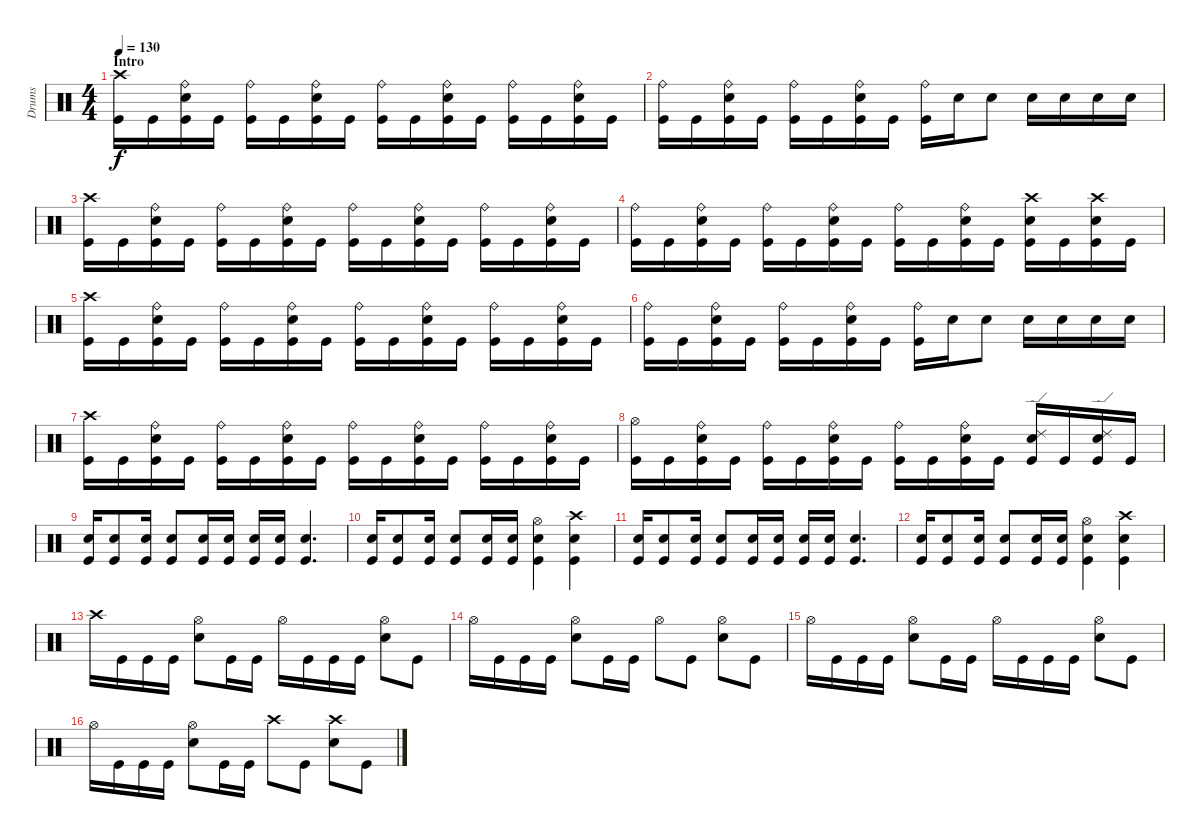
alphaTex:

\track ("Drums" "Drums") {instrument percussion}
\staff {score}
\articulation defaults
\ts (4 4)
\section ("" "Intro ")
\tempo 130
\clef neutral
\ks c
("Crash high (hit)" "Kick (hit)").16{dy f} "Kick (hit)".16 ("Ride (bell)" "Electric Snare (hit)" "Kick (hit)").16 "Kick (hit)".16 ("Ride (bell)" "Kick (hit)").16 "Kick (hit)".16 ("Ride (bell)" "Electric Snare (hit)" "Kick (hit)").16 "Kick (hit)".16 ("Ride (bell)" "Kick (hit)").16 "Kick (hit)".16 ("Ride (bell)" "Electric Snare (hit)" "Kick (hit)").16 "Kick (hit)".16 ("Ride (bell)" "Kick (hit)").16 "Kick (hit)".16 ("Ride (bell)" "Electric Snare (hit)" "Kick (hit)").16 "Kick (hit)".16 |
("Ride (bell)" "Kick (hit)").16 "Kick (hit)".16 ("Ride (bell)" "Electric Snare (hit)" "Kick (hit)").16 "Kick (hit)".16 ("Ride (bell)" "Kick (hit)").16 "Kick (hit)".16 ("Ride (bell)" "Electric Snare (hit)" "Kick (hit)").16 "Kick (hit)".16 ("Ride (bell)" "Kick (hit)").16 "Electric Snare (hit)".16 "Electric Snare (hit)".8 "Electric Snare (hit)".16 "Electric Snare (hit)".16 "Electric Snare (hit)".16 "Electric Snare (hit)".16 |
("Crash high (hit)" "Kick (hit)").16 "Kick (hit)".16 ("Ride (bell)" "Electric Snare (hit)" "Kick (hit)").16 "Kick (hit)".16 ("Ride (bell)" "Kick (hit)").16 "Kick (hit)".16 ("Ride (bell)" "Electric Snare (hit)" "Kick (hit)").16 "Kick (hit)".16 ("Ride (bell)" "Kick (hit)").16 "Kick (hit)".16 ("Ride (bell)" "Electric Snare (hit)" "Kick (hit)").16 "Kick (hit)".16 ("Ride (bell)" "Kick (hit)").16 "Kick (hit)".16 ("Ride (bell)" "Electric Snare (hit)" "Kick (hit)").16 "Kick (hit)".16 |
("Ride (bell)" "Kick (hit)").16 "Kick (hit)".16 ("Ride (bell)" "Electric Snare (hit)" "Kick (hit)").16 "Kick (hit)".16 ("Ride (bell)" "Kick (hit)").16 "Kick (hit)".16 ("Ride (bell)" "Electric Snare (hit)" "Kick (hit)").16 "Kick (hit)".16 ("Ride (bell)" "Kick (hit)").16 "Kick (hit)".16 ("Ride (bell)" "Electric Snare (hit)" "Kick (hit)").16 "Kick (hit)".16 ("Crash high (hit)" "Electric Snare (hit)" "Kick (hit)").16 "Kick (hit)".16 ("Crash high (hit)" "Electric Snare (hit)" "Kick (hit)").16 "Kick (hit)".16 |
("Crash high (hit)" "Kick (hit)").16 "Kick (hit)".16 ("Ride (bell)" "Electric Snare (hit)" "Kick (hit)").16 "Kick (hit)".16 ("Ride (bell)" "Kick (hit)").16 "Kick (hit)".16 ("Ride (bell)" "Electric Snare (hit)" "Kick (hit)").16 "Kick (hit)".16 ("Ride (bell)" "Kick (hit)").16 "Kick (hit)".16 ("Ride (bell)" "Electric Snare (hit)" "Kick (hit)").16 "Kick (hit)".16 ("Ride (bell)" "Kick (hit)").16 "Kick (hit)".16 ("Ride (bell)" "Electric Snare (hit)" "Kick (hit)").16 "Kick (hit)".16 |
("Ride (bell)" "Kick (hit)").16 "Kick (hit)".16 ("Ride (bell)" "Electric Snare (hit)" "Kick (hit)").16 "Kick (hit)".16 ("Ride (bell)" "Kick (hit)").16 "Kick (hit)".16 ("Ride (bell)" "Electric Snare (hit)" "Kick (hit)").16 "Kick (hit)".16 ("Ride (bell)" "Kick (hit)").16 "Electric Snare (hit)".16 "Electric Snare (hit)".8 "Electric Snare (hit)".16 "Electric Snare (hit)".16 "Electric Snare (hit)".16 "Electric Snare (hit)".16 |
("Crash high (hit)" "Kick (hit)").16 "Kick (hit)".16 ("Ride (bell)" "Electric Snare (hit)" "Kick (hit)").16 "Kick (hit)".16 ("Ride (bell)" "Kick (hit)").16 "Kick (hit)".16 ("Ride (bell)" "Electric Snare (hit)" "Kick (hit)").16 "Kick (hit)".16 ("Ride (bell)" "Kick (hit)").16 "Kick (hit)".16 ("Ride (bell)" "Electric Snare (hit)" "Kick (hit)").16 "Kick (hit)".16 ("Ride (bell)" "Kick (hit)").16 "Kick (hit)".16 ("Ride (bell)" "Electric Snare (hit)" "Kick (hit)").16 "Kick (hit)".16 |
("Hi-Hat (open)" "Kick (hit)").16 "Kick (hit)".16 ("Ride (bell)" "Electric Snare (hit)" "Kick (hit)").16 "Kick (hit)".16 ("Ride (bell)" "Kick (hit)").16 "Kick (hit)".16 ("Ride (bell)" "Electric Snare (hit)" "Kick (hit)").16 "Kick (hit)".16 ("Ride (bell)" "Kick (hit)").16 "Kick (hit)".16 ("Ride (bell)" "Electric Snare (hit)" "Kick (hit)").16 "Kick (hit)".16 ("Ride (edge) 2" "Electric Snare (hit)" "Kick (hit)").16 "Kick (hit)".16 ("Ride (edge) 2" "Electric Snare (hit)" "Kick (hit)").16 "Kick (hit)".16 |
("Electric Snare (hit)" "Kick (hit)").16 ("Electric Snare (hit)" "Kick (hit)").8 ("Electric Snare (hit)" "Kick (hit)").16 ("Electric Snare (hit)" "Kick (hit)").8 ("Electric Snare (hit)" "Kick (hit)").16 ("Electric Snare (hit)" "Kick (hit)").16 ("Electric Snare (hit)" "Kick (hit)").16 ("Electric Snare (hit)" "Kick (hit)").16 ("Electric Snare (hit)" "Kick (hit)").4{d} |
("Electric Snare (hit)" "Kick (hit)").16 ("Electric Snare (hit)" "Kick (hit)").8 ("Electric Snare (hit)" "Kick (hit)").16 ("Electric Snare (hit)" "Kick (hit)").8 ("Electric Snare (hit)" "Kick (hit)").16 ("Electric Snare (hit)" "Kick (hit)").16 ("Hi-Hat (open)" "Electric Snare (hit)" "Kick (hit)").4 ("Crash high (hit)" "Electric Snare (hit)" "Kick (hit)").4 |
("Electric Snare (hit)" "Kick (hit)").16 ("Electric Snare (hit)" "Kick (hit)").8 ("Electric Snare (hit)" "Kick (hit)").16 ("Electric Snare (hit)" "Kick (hit)").8 ("Electric Snare (hit)" "Kick (hit)").16 ("Electric Snare (hit)" "Kick (hit)").16 ("Electric Snare (hit)" "Kick (hit)").16 ("Electric Snare (hit)" "Kick (hit)").16 ("Electric Snare (hit)" "Kick (hit)").4{d} |
("Electric Snare (hit)" "Kick (hit)").16 ("Electric Snare (hit)" "Kick (hit)").8 ("Electric Snare (hit)" "Kick (hit)").16 ("Electric Snare (hit)" "Kick (hit)").8 ("Electric Snare (hit)" "Kick (hit)").16 ("Electric Snare (hit)" "Kick (hit)").16 ("Hi-Hat (open)" "Electric Snare (hit)" "Kick (hit)").4 ("Crash high (hit)" "Electric Snare (hit)" "Kick (hit)").4 |
"Crash high (hit)".16 "Kick (hit)".16 "Kick (hit)".16 "Kick (hit)".16 ("Hi-Hat (open)" "Electric Snare (hit)").8 "Kick (hit)".16 "Kick (hit)".16 "Hi-Hat (open)".16 "Kick (hit)".16 "Kick (hit)".16 "Kick (hit)".16 ("Hi-Hat (open)" "Electric Snare (hit)").8 "Kick (hit)".8 |
"Hi-Hat (open)".16 "Kick (hit)".16 "Kick (hit)".16 "Kick (hit)".16 ("Hi-Hat (open)" "Electric Snare (hit)").8 "Kick (hit)".16 "Kick (hit)".16 "Hi-Hat (open)".8 "Kick (hit)".8 ("Hi-Hat (open)" "Electric Snare (hit)").8 "Kick (hit)".8 |
"Hi-Hat (open)".16 "Kick (hit)".16 "Kick (hit)".16 "Kick (hit)".16 ("Hi-Hat (open)" "Electric Snare (hit)").8 "Kick (hit)".16 "Kick (hit)".16 "Hi-Hat (open)".16 "Kick (hit)".16 "Kick (hit)".16 "Kick (hit)".16 ("Hi-Hat (open)" "Electric Snare (hit)").8 "Kick (hit)".8 |
"Hi-Hat (open)".16 "Kick (hit)".16 "Kick (hit)".16 "Kick (hit)".16 ("Hi-Hat (open)" "Electric Snare (hit)").8 "Kick (hit)".16 "Kick (hit)".16 "Crash high (hit)".8 "Kick (hit)".8 ("Crash high (hit)" "Electric Snare (hit)").8 "Kick (hit)".8
